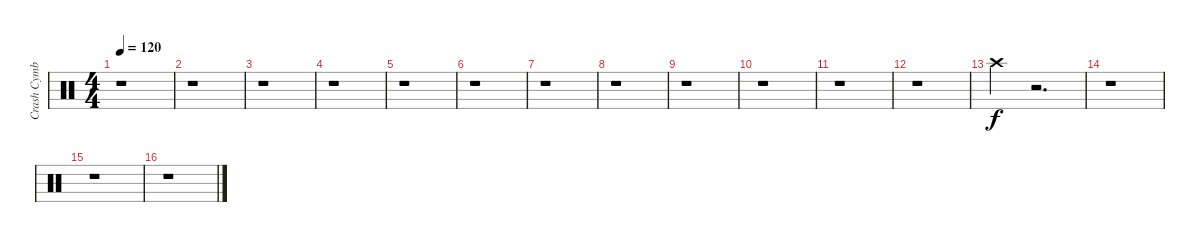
\track ("Crash Cymbal" "Crash Cymb") {instrument percussion}
\staff {score}
\articulation defaults
\ts (4 4)
\tempo 120
\clef neutral
\ks c
r.1{dy f} |
r.1 |
r.1 |
r.1 |
r.1 |
r.1 |
r.1 |
r.1 |
r.1 |
r.1 |
r.1 |
r.1 |
"Crash high (hit)".4 r.2{d} |
r.1 |
r.1 |
r.1
